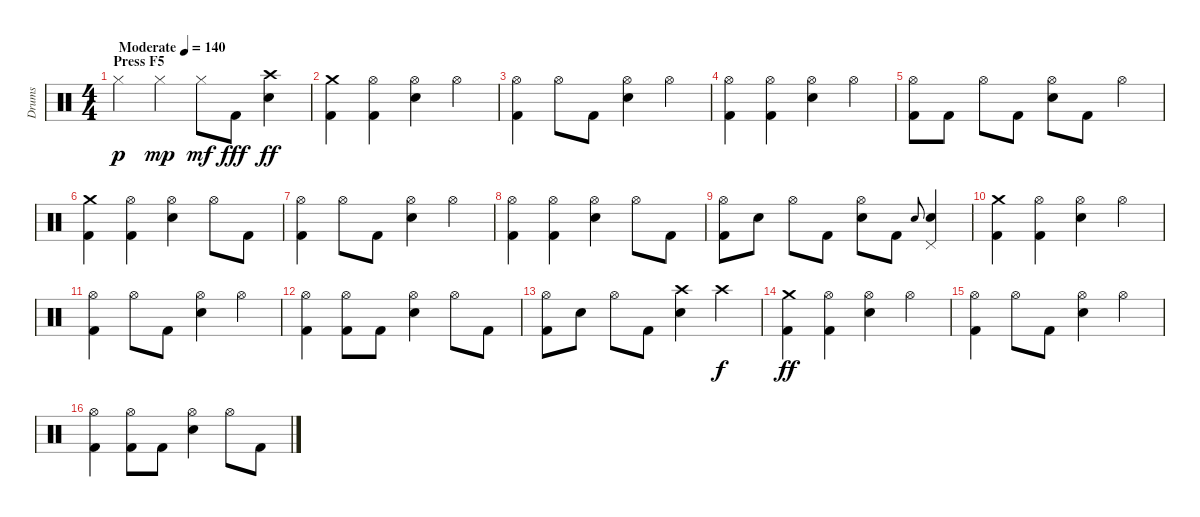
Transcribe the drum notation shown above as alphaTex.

\track ("Drums" "Drums") {instrument percussion}
\staff {score}
\articulation defaults
\ts (4 4)
\section ("" "Press F5")
\tempo (140 "Moderate")
\clef neutral
\ks c "Hi-Hat (closed)".4{dy p} "Hi-Hat (closed)".4{dy mp} "Hi-Hat (closed)".8{dy mf} "Kick (hit) 2".8{dy fff}
("Crash high (hit)" "Snare (hit) 2").4{dy ff} |
("Crash medium (hit)" "Kick (hit) 2").4 ("Hi-Hat (open)" "Kick (hit) 2").4 ("Hi-Hat (open)" "Snare (hit) 2").4 "Hi-Hat (open)".4 |
("Hi-Hat (open)" "Kick (hit) 2").4 "Hi-Hat (open)".8 "Kick (hit) 2".8 ("Hi-Hat (open)" "Snare (hit) 2").4 "Hi-Hat (open)".4 |
("Hi-Hat (open)" "Kick (hit) 2").4 ("Hi-Hat (open)" "Kick (hit) 2").4 ("Hi-Hat (open)" "Snare (hit) 2").4 "Hi-Hat (open)".4 |
("Hi-Hat (open)" "Kick (hit) 2").8 "Kick (hit) 2".8 "Hi-Hat (open)".8 "Kick (hit) 2".8 ("Hi-Hat (open)" "Snare (hit) 2").8 "Kick (hit) 2".8 "Hi-Hat (open)".4 |
("Crash medium (hit)" "Kick (hit) 2").4 ("Hi-Hat (open)" "Kick (hit) 2").4 ("Hi-Hat (open)" "Snare (hit) 2").4 "Hi-Hat (open)".8 "Kick (hit) 2".8 |
("Hi-Hat (open)" "Kick (hit) 2").4 "Hi-Hat (open)".8 "Kick (hit) 2".8 ("Hi-Hat (open)" "Snare (hit) 2").4 "Hi-Hat (open)".4 |
("Hi-Hat (open)" "Kick (hit) 2").4 ("Hi-Hat (open)" "Kick (hit) 2").4 ("Hi-Hat (open)" "Snare (hit) 2").4 "Hi-Hat (open)".8 "Kick (hit) 2".8 |
("Hi-Hat (open)" "Kick (hit) 2").8 "Snare (hit) 2".8 "Hi-Hat (open)".8 "Kick (hit) 2".8 ("Hi-Hat (open)" "Snare (hit) 2").8 "Kick (hit) 2".8 "Snare (hit) 2".8{gr onbeat} ("Pedal Hi-Hat (hit)" "Snare (hit) 2").4 |
("Crash medium (hit)" "Kick (hit) 2").4 ("Hi-Hat (open)" "Kick (hit) 2").4 ("Hi-Hat (open)" "Snare (hit) 2").4 "Hi-Hat (open)".4 |
("Hi-Hat (open)" "Kick (hit) 2").4 "Hi-Hat (open)".8 "Kick (hit) 2".8 ("Hi-Hat (open)" "Snare (hit) 2").4 "Hi-Hat (open)".4 |
("Hi-Hat (open)" "Kick (hit) 2").4 ("Hi-Hat (open)" "Kick (hit) 2").8 "Kick (hit) 2".8 ("Hi-Hat (open)" "Snare (hit) 2").4 "Hi-Hat (open)".8 "Kick (hit) 2".8 |
("Hi-Hat (open)" "Kick (hit) 2").8 "Snare (hit) 2".8 "Hi-Hat (open)".8 "Kick (hit) 2".8 ("Crash high (hit)" "Snare (hit) 2").4 "Crash high (hit)".4{dy f} |
("Crash medium (hit)" "Kick (hit) 2").4{dy ff} ("Hi-Hat (open)" "Kick (hit) 2").4 ("Hi-Hat (open)" "Snare (hit) 2").4 "Hi-Hat (open)".4 |
("Hi-Hat (open)" "Kick (hit) 2").4 "Hi-Hat (open)".8 "Kick (hit) 2".8 ("Hi-Hat (open)" "Snare (hit) 2").4 "Hi-Hat (open)".4 |
("Hi-Hat (open)" "Kick (hit) 2").4 ("Hi-Hat (open)" "Kick (hit) 2").8 "Kick (hit) 2".8 ("Hi-Hat (open)" "Snare (hit) 2").4 "Hi-Hat (open)".8 "Kick (hit) 2".8
